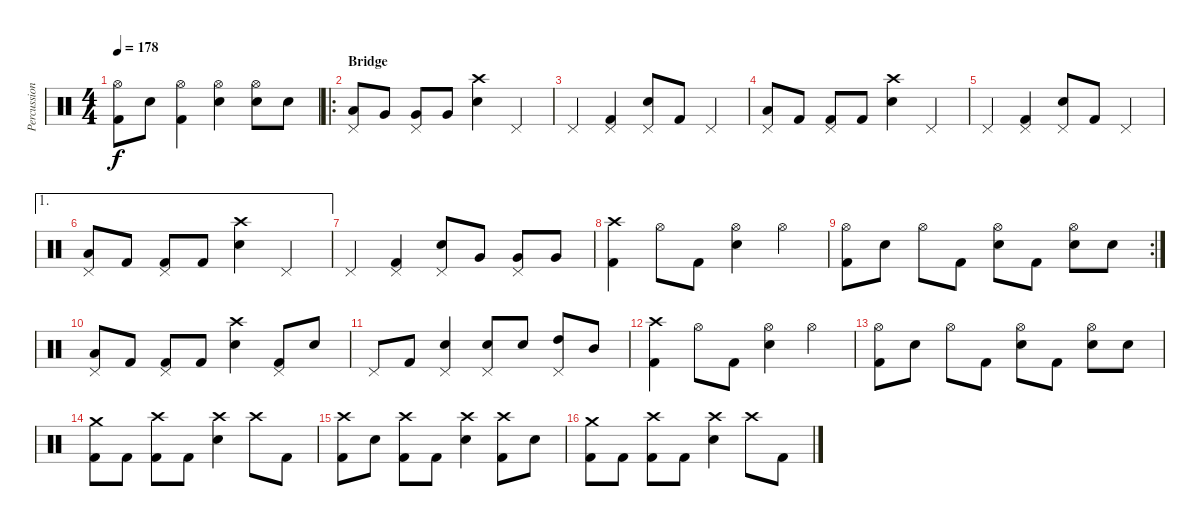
\track ("Percussion" "Percussion") {instrument percussion}
\staff {score}
\articulation defaults
\ts (4 4)
\tempo 178
\clef neutral
\ks c
("Hi-Hat (open)" "Kick (hit) 2").8{dy f} "Snare (hit) 2".8 ("Hi-Hat (open)" "Kick (hit) 2").4 ("Hi-Hat (open)" "Snare (hit) 2").4 ("Hi-Hat (open)" "Snare (hit) 2").8 "Snare (hit) 2".8 |
\ro
\section ("" "Bridge")
("Pedal Hi-Hat (hit)" "Low Tom (hit)").8 "Very Low Tom (hit)".8 ("Pedal Hi-Hat (hit)" "Very Low Tom (hit)").8 "Very Low Tom (hit)".8 ("Crash high (hit)" "Snare (hit) 2").4 "Pedal Hi-Hat (hit)".4 |
"Pedal Hi-Hat (hit)".4 ("Pedal Hi-Hat (hit)" "Kick (hit) 2").4 ("Pedal Hi-Hat (hit)" "Snare (hit) 2").8 "Kick (hit) 2".8 "Pedal Hi-Hat (hit)".4 |
("Pedal Hi-Hat (hit)" "Low Tom (hit)").8 "Kick (hit) 2".8 ("Pedal Hi-Hat (hit)" "Kick (hit) 2").8 "Kick (hit) 2".8 ("Crash high (hit)" "Snare (hit) 2").4 "Pedal Hi-Hat (hit)".4 |
"Pedal Hi-Hat (hit)".4 ("Pedal Hi-Hat (hit)" "Kick (hit) 2").4 ("Pedal Hi-Hat (hit)" "Snare (hit) 2").8 "Kick (hit) 2".8 "Pedal Hi-Hat (hit)".4 |
\ae 1
("Pedal Hi-Hat (hit)" "Low Tom (hit)").8 "Kick (hit) 2".8 ("Pedal Hi-Hat (hit)" "Kick (hit) 2").8 "Kick (hit) 2".8 ("Crash high (hit)" "Snare (hit) 2").4 "Pedal Hi-Hat (hit)".4 |
"Pedal Hi-Hat (hit)".4 ("Pedal Hi-Hat (hit)" "Kick (hit) 2").4 ("Pedal Hi-Hat (hit)" "Snare (hit) 2").8 "Very Low Tom (hit)".8 ("Pedal Hi-Hat (hit)" "Very Low Tom (hit)").8 "Very Low Tom (hit)".8 |
("Crash high (hit)" "Kick (hit) 2").4 "Hi-Hat (open)".8 "Kick (hit) 2".8 ("Hi-Hat (open)" "Snare (hit) 2").4 "Hi-Hat (open)".4 |
\rc 2
("Hi-Hat (open)" "Kick (hit) 2").8 "Snare (hit) 2".8 "Hi-Hat (open)".8 "Kick (hit) 2".8 ("Hi-Hat (open)" "Snare (hit) 2").8 "Kick (hit) 2".8 ("Hi-Hat (open)" "Snare (hit) 2").8 "Snare (hit) 2".8 |
("Pedal Hi-Hat (hit)" "Low Tom (hit)").8 "Kick (hit) 2".8 ("Pedal Hi-Hat (hit)" "Kick (hit) 2").8 "Kick (hit) 2".8 ("Crash high (hit)" "Snare (hit) 2").4 ("Pedal Hi-Hat (hit)" "Kick (hit) 2").8 "Snare (hit) 2".8 |
"Pedal Hi-Hat (hit)".8 "Kick (hit) 2".8 ("Pedal Hi-Hat (hit)" "Snare (hit) 2").4 ("Pedal Hi-Hat (hit)" "Snare (hit) 2").8 "Snare (hit) 2".8 ("Pedal Hi-Hat (hit)" "High Tom (hit)").8 "Mid Tom (hit)".8 |
("Crash high (hit)" "Kick (hit) 2").4 "Hi-Hat (open)".8 "Kick (hit) 2".8 ("Hi-Hat (open)" "Snare (hit) 2").4 "Hi-Hat (open)".4 |
("Hi-Hat (open)" "Kick (hit) 2").8 "Snare (hit) 2".8 "Hi-Hat (open)".8 "Kick (hit) 2".8 ("Hi-Hat (open)" "Snare (hit) 2").8 "Kick (hit) 2".8 ("Hi-Hat (open)" "Snare (hit) 2").8 "Snare (hit) 2".8 |
("Crash medium (hit)" "Kick (hit) 2").8 "Kick (hit) 2".8 ("Crash high (hit)" "Kick (hit) 2").8 "Kick (hit) 2".8 ("Crash high (hit)" "Snare (hit) 2").4 "Crash high (hit)".8 "Kick (hit) 2".8 |
("Crash high (hit)" "Kick (hit) 2").8 "Snare (hit) 2".8 ("Crash high (hit)" "Kick (hit) 2").8 "Kick (hit) 2".8 ("Crash high (hit)" "Snare (hit) 2").4 ("Crash high (hit)" "Kick (hit) 2").8 "Snare (hit) 2".8 |
("Crash medium (hit)" "Kick (hit) 2").8 "Kick (hit) 2".8 ("Crash high (hit)" "Kick (hit) 2").8 "Kick (hit) 2".8 ("Crash high (hit)" "Snare (hit) 2").4 "Crash high (hit)".8 "Kick (hit) 2".8
